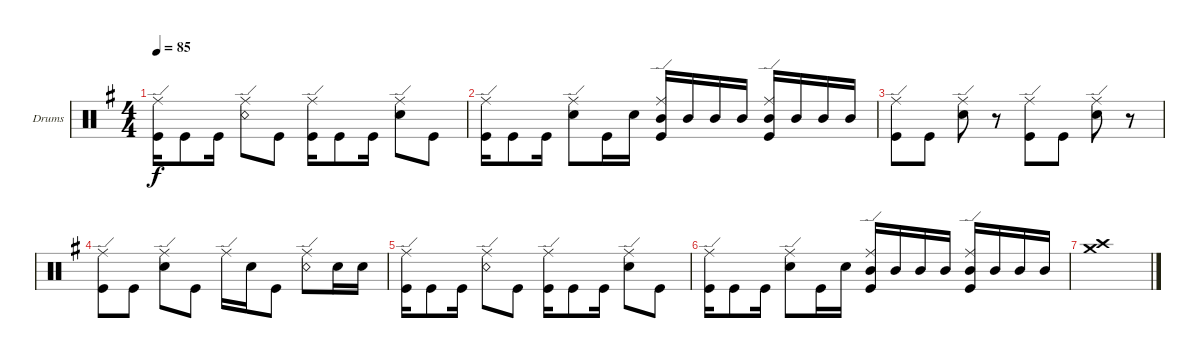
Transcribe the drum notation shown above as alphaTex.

\bracketExtendMode groupsimilarinstruments
\firstSystemTrackNameOrientation horizontal
\otherSystemsTrackNameOrientation horizontal
\track ("Drumkit" "Drums") {instrument percussion}
\staff {score}
\articulation defaults
\ts (4 4)
\tempo 85
\clef neutral
\scale
0.333333
\ks eminor
("Kick (hit)" "Ride (edge)").16{dy f} "Kick (hit)".8 "Kick (hit)".16 ("Snare (rim shot)" "Ride (edge)").8 "Kick (hit)".8 ("Kick (hit)" "Ride (edge)").16 "Kick (hit)".8 "Kick (hit)".16 ("Snare (hit) 2" "Ride (edge)").8 "Kick (hit)".8 |
\scale
0.333333 ("Kick (hit)" "Ride (edge)").16 "Kick (hit)".8 "Kick (hit)".16 ("Snare (hit) 2" "Ride (edge)").8 "Kick (hit)".16 "Snare (hit) 2".16 ("Mid Tom (hit)" "Kick (hit)" "Ride (edge)").16 "Mid Tom (hit)".16 "Mid Tom (hit)".16 "Mid Tom (hit)".16 ("Mid Tom (hit)" "Kick (hit)" "Ride (edge)").16 "Mid Tom (hit)".16 "Mid Tom (hit)".16 "Mid Tom (hit)".16 |
\scale
0.333333 ("Kick (hit)" "Ride (edge)").8 "Kick (hit)".8 ("Snare (hit) 2" "Ride (edge)").8 r.8 ("Kick (hit)" "Ride (edge)").8 "Kick (hit)".8 ("Snare (hit) 2" "Ride (edge)").8 r.8 |
\scale
0.333333 ("Kick (hit)" "Ride (edge)").8 "Kick (hit)".8 ("Snare (hit) 2" "Ride (edge)").8 "Kick (hit)".8 "Ride (edge)".16 "Snare (hit) 2".16 "Kick (hit)".8 ("Snare (rim shot)" "Ride (edge)").8 "Snare (hit) 2".16 "Snare (hit) 2".16 |
\scale
0.333333 ("Kick (hit)" "Ride (edge)").16 "Kick (hit)".8 "Kick (hit)".16 ("Snare (rim shot)" "Ride (edge)").8 "Kick (hit)".8 ("Kick (hit)" "Ride (edge)").16 "Kick (hit)".8 "Kick (hit)".16 ("Snare (hit) 2" "Ride (edge)").8 "Kick (hit)".8 |
("Kick (hit)" "Ride (edge)").16 "Kick (hit)".8 "Kick (hit)".16 ("Snare (hit) 2" "Ride (edge)").8 "Kick (hit)".16 "Snare (hit) 2".16 ("Mid Tom (hit)" "Kick (hit)" "Ride (edge)").16 "Mid Tom (hit)".16 "Mid Tom (hit)".16 "Mid Tom (hit)".16 ("Mid Tom (hit)" "Kick (hit)" "Ride (edge)").16 "Mid Tom (hit)".16 "Mid Tom (hit)".16 "Mid Tom (hit)".16 |
("Crash medium (hit)" "Crash high (hit)").1
